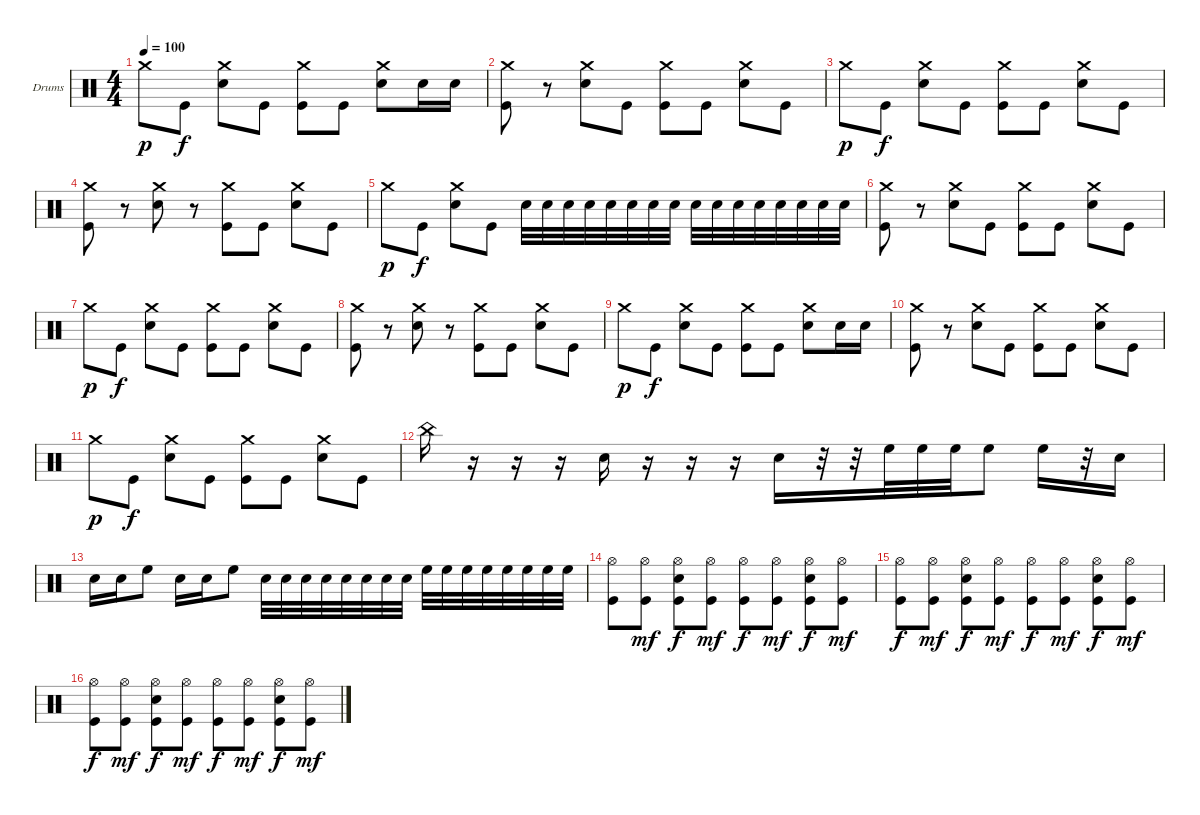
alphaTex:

\bracketExtendMode groupsimilarinstruments
\firstSystemTrackNameOrientation horizontal
\otherSystemsTrackNameOrientation horizontal
\track ("Drumkit" "Drums") {instrument percussion}
\staff {score}
\articulation defaults
\ts (4 4)
\tempo 100
\clef neutral
\ks c "Crash medium (hit)".8{dy p} "Kick (hit)".8{dy f}
("Snare (hit) 2" "Crash medium (hit)").8 "Kick (hit)".8 ("Kick (hit)" "Crash medium (hit)").8 "Kick (hit)".8 ("Snare (hit) 2" "Crash medium (hit)").8 "Snare (hit) 2".16 "Snare (hit) 2".16 |
("Kick (hit)" "Crash medium (hit)").8 r.8 ("Snare (hit) 2" "Crash medium (hit)").8 "Kick (hit)".8 ("Kick (hit)" "Crash medium (hit)").8 "Kick (hit)".8 ("Snare (hit) 2" "Crash medium (hit)").8 "Kick (hit)".8 |
"Crash medium (hit)".8{dy p} "Kick (hit)".8{dy f} ("Snare (hit) 2" "Crash medium (hit)").8 "Kick (hit)".8 ("Kick (hit)" "Crash medium (hit)").8 "Kick (hit)".8 ("Snare (hit) 2" "Crash medium (hit)").8 "Kick (hit)".8 |
("Kick (hit)" "Crash medium (hit)").8 r.8 ("Snare (hit) 2" "Crash medium (hit)").8 r.8 ("Kick (hit)" "Crash medium (hit)").8 "Kick (hit)".8 ("Snare (hit) 2" "Crash medium (hit)").8 "Kick (hit)".8 |
"Crash medium (hit)".8{dy p} "Kick (hit)".8{dy f} ("Snare (hit) 2" "Crash medium (hit)").8 "Kick (hit)".8 "Snare (hit) 2".32 "Snare (hit) 2".32 "Snare (hit) 2".32 "Snare (hit) 2".32 "Snare (hit) 2".32 "Snare (hit) 2".32 "Snare (hit) 2".32 "Snare (hit) 2".32 "Snare (hit) 2".32 "Snare (hit) 2".32 "Snare (hit) 2".32 "Snare (hit) 2".32 "Snare (hit) 2".32 "Snare (hit) 2".32 "Snare (hit) 2".32 "Snare (hit) 2".32 |
("Kick (hit)" "Crash medium (hit)").8 r.8 ("Snare (hit) 2" "Crash medium (hit)").8 "Kick (hit)".8 ("Kick (hit)" "Crash medium (hit)").8 "Kick (hit)".8 ("Snare (hit) 2" "Crash medium (hit)").8 "Kick (hit)".8 |
"Crash medium (hit)".8{dy p} "Kick (hit)".8{dy f} ("Snare (hit) 2" "Crash medium (hit)").8 "Kick (hit)".8 ("Kick (hit)" "Crash medium (hit)").8 "Kick (hit)".8 ("Snare (hit) 2" "Crash medium (hit)").8 "Kick (hit)".8 |
("Kick (hit)" "Crash medium (hit)").8 r.8 ("Snare (hit) 2" "Crash medium (hit)").8 r.8 ("Kick (hit)" "Crash medium (hit)").8 "Kick (hit)".8 ("Snare (hit) 2" "Crash medium (hit)").8 "Kick (hit)".8 |
"Crash medium (hit)".8{dy p} "Kick (hit)".8{dy f} ("Snare (hit) 2" "Crash medium (hit)").8 "Kick (hit)".8 ("Kick (hit)" "Crash medium (hit)").8 "Kick (hit)".8 ("Snare (hit) 2" "Crash medium (hit)").8 "Snare (hit) 2".16 "Snare (hit) 2".16 |
("Kick (hit)" "Crash medium (hit)").8 r.8 ("Snare (hit) 2" "Crash medium (hit)").8 "Kick (hit)".8 ("Kick (hit)" "Crash medium (hit)").8 "Kick (hit)".8 ("Snare (hit) 2" "Crash medium (hit)").8 "Kick (hit)".8 |
"Crash medium (hit)".8{dy p} "Kick (hit)".8{dy f} ("Snare (hit) 2" "Crash medium (hit)").8 "Kick (hit)".8 ("Kick (hit)" "Crash medium (hit)").8 "Kick (hit)".8 ("Snare (hit) 2" "Crash medium (hit)").8 "Kick (hit)".8 |
"China (hit)".16 r.16 r.16 r.16 "Snare (hit) 2".16 r.16 r.16 r.16 "Snare (hit) 2".16 r.32 r.32 "High Floor Tom (hit)".32 "High Floor Tom (hit)".32 "High Floor Tom (hit)".32 "High Floor Tom (hit)".8 "High Floor Tom (hit)".16 r.32 "Snare (hit) 2".16 |
"Snare (hit) 2".16 "Snare (hit) 2".16 "High Floor Tom (hit)".8 "Snare (hit) 2".16 "Snare (hit) 2".16 "High Floor Tom (hit)".8 "Snare (hit) 2".32 "Snare (hit) 2".32 "Snare (hit) 2".32 "Snare (hit) 2".32 "Snare (hit) 2".32 "Snare (hit) 2".32 "Snare (hit) 2".32 "Snare (hit) 2".32 "High Floor Tom (hit)".32 "High Floor Tom (hit)".32 "High Floor Tom (hit)".32 "High Floor Tom (hit)".32 "High Floor Tom (hit)".32 "High Floor Tom (hit)".32 "High Floor Tom (hit)".32 "High Floor Tom (hit)".32 |
("Hi-Hat (open)" "Kick (hit)").8 ("Hi-Hat (open)" "Kick (hit)").8{dy mf} ("Hi-Hat (open)" "Kick (hit)" "Snare (hit) 2").8{dy f} ("Hi-Hat (open)" "Kick (hit)").8{dy mf} ("Hi-Hat (open)" "Kick (hit)").8{dy f} ("Hi-Hat (open)" "Kick (hit)").8{dy mf} ("Hi-Hat (open)" "Kick (hit)" "Snare (hit) 2").8{dy f} ("Hi-Hat (open)" "Kick (hit)").8{dy mf} |
("Hi-Hat (open)" "Kick (hit)").8{dy f} ("Hi-Hat (open)" "Kick (hit)").8{dy mf} ("Hi-Hat (open)" "Kick (hit)" "Snare (hit) 2").8{dy f} ("Hi-Hat (open)" "Kick (hit)").8{dy mf} ("Hi-Hat (open)" "Kick (hit)").8{dy f} ("Hi-Hat (open)" "Kick (hit)").8{dy mf} ("Hi-Hat (open)" "Kick (hit)" "Snare (hit) 2").8{dy f} ("Hi-Hat (open)" "Kick (hit)").8{dy mf} |
("Hi-Hat (open)" "Kick (hit)").8{dy f} ("Hi-Hat (open)" "Kick (hit)").8{dy mf} ("Hi-Hat (open)" "Kick (hit)" "Snare (hit) 2").8{dy f} ("Hi-Hat (open)" "Kick (hit)").8{dy mf} ("Hi-Hat (open)" "Kick (hit)").8{dy f} ("Hi-Hat (open)" "Kick (hit)").8{dy mf} ("Hi-Hat (open)" "Kick (hit)" "Snare (hit) 2").8{dy f} ("Hi-Hat (open)" "Kick (hit)").8{dy mf}
